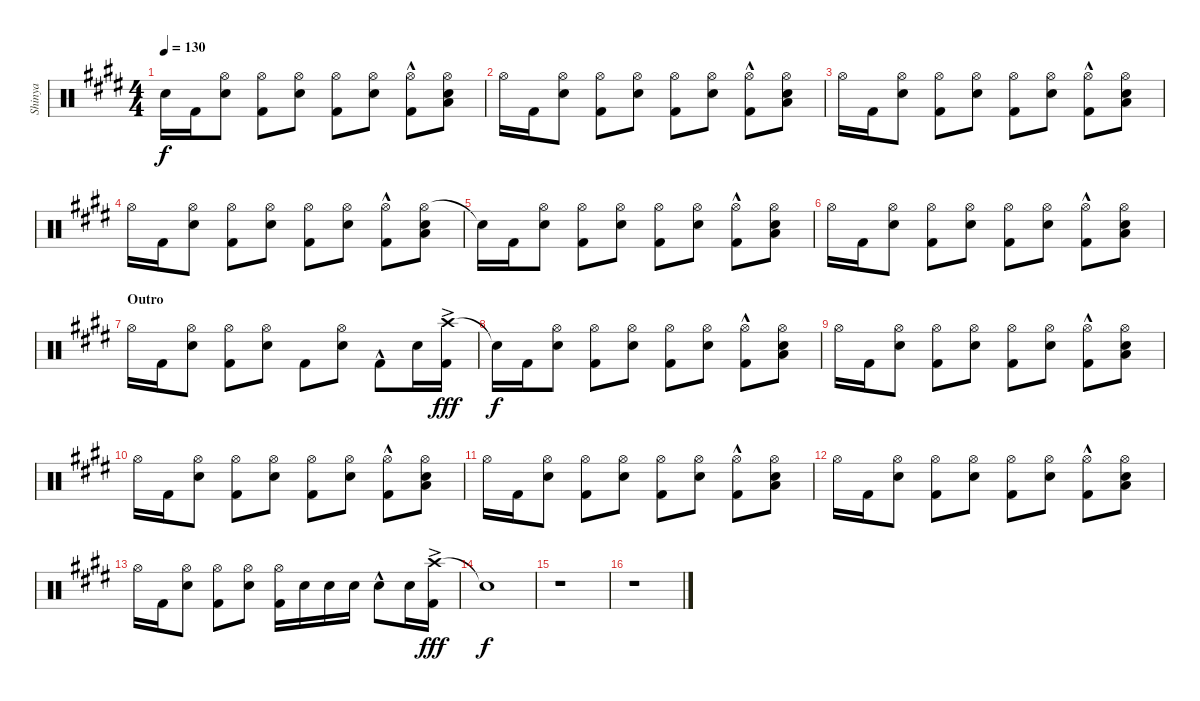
\track ("Shinya" "Shinya") {instrument percussion}
\staff {score}
\articulation defaults
\ts (4 4)
\tempo 130
\clef neutral
\ks e "Snare (hit)"{t}.16{dy f} "Kick (hit) 2".16
("Hi-Hat (open)" "Snare (hit) 2").8 ("Hi-Hat (open)" "Kick (hit) 2").8 ("Hi-Hat (open)" "Snare (hit) 2").8 ("Hi-Hat (open)" "Kick (hit) 2").8 ("Hi-Hat (open)" "Snare (hit) 2").8 ("Hi-Hat (open)" "Kick (hit) 2"{hac}).8 ("Hi-Hat (open)" "Low Floor Tom (hit)" "Snare (hit) 2").8 |
"Hi-Hat (open)".16 "Kick (hit) 2".16 ("Hi-Hat (open)" "Snare (hit) 2").8 ("Hi-Hat (open)" "Kick (hit) 2").8 ("Hi-Hat (open)" "Snare (hit) 2").8 ("Hi-Hat (open)" "Kick (hit) 2").8 ("Hi-Hat (open)" "Snare (hit) 2").8 ("Hi-Hat (open)" "Kick (hit) 2"{hac}).8 ("Hi-Hat (open)" "Low Floor Tom (hit)" "Snare (hit) 2").8 |
"Hi-Hat (open)".16 "Kick (hit) 2".16 ("Hi-Hat (open)" "Snare (hit) 2").8 ("Hi-Hat (open)" "Kick (hit) 2").8 ("Hi-Hat (open)" "Snare (hit) 2").8 ("Hi-Hat (open)" "Kick (hit) 2").8 ("Hi-Hat (open)" "Snare (hit) 2").8 ("Hi-Hat (open)" "Kick (hit) 2"{hac}).8 ("Hi-Hat (open)" "Low Floor Tom (hit)" "Snare (hit) 2").8 |
"Hi-Hat (open)".16 "Kick (hit) 2".16 ("Hi-Hat (open)" "Snare (hit) 2").8 ("Hi-Hat (open)" "Kick (hit) 2").8 ("Hi-Hat (open)" "Snare (hit) 2").8 ("Hi-Hat (open)" "Kick (hit) 2").8 ("Hi-Hat (open)" "Snare (hit) 2").8 ("Hi-Hat (open)" "Kick (hit) 2"{hac}).8 ("Hi-Hat (open)" "Low Floor Tom (hit)" "Snare (hit) 2").8 |
"Snare (hit)"{t}.16 "Kick (hit) 2".16 ("Hi-Hat (open)" "Snare (hit) 2").8 ("Hi-Hat (open)" "Kick (hit) 2").8 ("Hi-Hat (open)" "Snare (hit) 2").8 ("Hi-Hat (open)" "Kick (hit) 2").8 ("Hi-Hat (open)" "Snare (hit) 2").8 ("Hi-Hat (open)" "Kick (hit) 2"{hac}).8 ("Hi-Hat (open)" "Low Floor Tom (hit)" "Snare (hit) 2").8 |
"Hi-Hat (open)".16 "Kick (hit) 2".16 ("Hi-Hat (open)" "Snare (hit) 2").8 ("Hi-Hat (open)" "Kick (hit) 2").8 ("Hi-Hat (open)" "Snare (hit) 2").8 ("Hi-Hat (open)" "Kick (hit) 2").8 ("Hi-Hat (open)" "Snare (hit) 2").8 ("Hi-Hat (open)" "Kick (hit) 2"{hac}).8 ("Hi-Hat (open)" "Low Floor Tom (hit)" "Snare (hit) 2").8 |
\section ("" "Outro")
"Hi-Hat (open)".16 "Kick (hit) 2".16 ("Hi-Hat (open)" "Snare (hit) 2").8 ("Hi-Hat (open)" "Kick (hit) 2").8 ("Hi-Hat (open)" "Snare (hit) 2").8 "Kick (hit) 2".8 ("Hi-Hat (open)" "Snare (hit) 2").8 "Kick (hit) 2"{hac}.8 "Snare (hit) 2".16 ("Crash high (hit)"{ac} "Kick (hit) 2").16{dy fff} |
"Snare (hit)"{t}.16{dy f} "Kick (hit) 2".16 ("Hi-Hat (open)" "Snare (hit) 2").8 ("Hi-Hat (open)" "Kick (hit) 2").8 ("Hi-Hat (open)" "Snare (hit) 2").8 ("Hi-Hat (open)" "Kick (hit) 2").8 ("Hi-Hat (open)" "Snare (hit) 2").8 ("Hi-Hat (open)" "Kick (hit) 2"{hac}).8 ("Hi-Hat (open)" "Low Floor Tom (hit)" "Snare (hit) 2").8 |
"Hi-Hat (open)".16 "Kick (hit) 2".16 ("Hi-Hat (open)" "Snare (hit) 2").8 ("Hi-Hat (open)" "Kick (hit) 2").8 ("Hi-Hat (open)" "Snare (hit) 2").8 ("Hi-Hat (open)" "Kick (hit) 2").8 ("Hi-Hat (open)" "Snare (hit) 2").8 ("Hi-Hat (open)" "Kick (hit) 2"{hac}).8 ("Hi-Hat (open)" "Low Floor Tom (hit)" "Snare (hit) 2").8 |
"Hi-Hat (open)".16 "Kick (hit) 2".16 ("Hi-Hat (open)" "Snare (hit) 2").8 ("Hi-Hat (open)" "Kick (hit) 2").8 ("Hi-Hat (open)" "Snare (hit) 2").8 ("Hi-Hat (open)" "Kick (hit) 2").8 ("Hi-Hat (open)" "Snare (hit) 2").8 ("Hi-Hat (open)" "Kick (hit) 2"{hac}).8 ("Hi-Hat (open)" "Low Floor Tom (hit)" "Snare (hit) 2").8 |
"Hi-Hat (open)".16 "Kick (hit) 2".16 ("Hi-Hat (open)" "Snare (hit) 2").8 ("Hi-Hat (open)" "Kick (hit) 2").8 ("Hi-Hat (open)" "Snare (hit) 2").8 ("Hi-Hat (open)" "Kick (hit) 2").8 ("Hi-Hat (open)" "Snare (hit) 2").8 ("Hi-Hat (open)" "Kick (hit) 2"{hac}).8 ("Hi-Hat (open)" "Low Floor Tom (hit)" "Snare (hit) 2").8 |
"Hi-Hat (open)".16 "Kick (hit) 2".16 ("Hi-Hat (open)" "Snare (hit) 2").8 ("Hi-Hat (open)" "Kick (hit) 2").8 ("Hi-Hat (open)" "Snare (hit) 2").8 ("Hi-Hat (open)" "Kick (hit) 2").8 ("Hi-Hat (open)" "Snare (hit) 2").8 ("Hi-Hat (open)" "Kick (hit) 2"{hac}).8 ("Hi-Hat (open)" "Low Floor Tom (hit)" "Snare (hit) 2").8 |
"Hi-Hat (open)".16 "Kick (hit) 2".16 ("Hi-Hat (open)" "Snare (hit) 2").8 ("Hi-Hat (open)" "Kick (hit) 2").8 ("Hi-Hat (open)" "Snare (hit) 2").8 ("Hi-Hat (open)" "Kick (hit) 2").16 "Snare (hit) 2".16 "Snare (hit) 2".16 "Snare (hit) 2".16 "Snare (hit) 2"{hac}.8 "Snare (hit) 2".16 ("Crash high (hit)"{ac} "Kick (hit) 2").16{dy fff} |
"Snare (hit)"{t}.1{dy f} |
r.1 |
r.1
